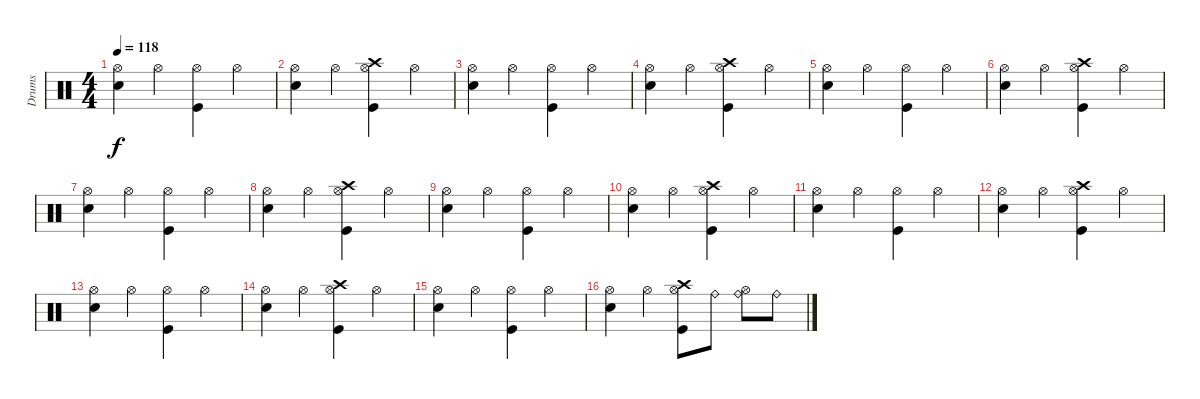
\track ("Drums" "Drums") {instrument percussion}
\staff {score}
\articulation defaults
\ts (4 4)
\tempo 118
\clef neutral
\ks c
("Snare (hit) 2" "Hi-Hat (open)").4{dy f} "Hi-Hat (open)".4 ("Kick (hit)" "Hi-Hat (open)").4 "Hi-Hat (open)".4 |
("Snare (hit) 2" "Hi-Hat (open)").4 "Hi-Hat (open)".4 ("Kick (hit)" "Hi-Hat (open)" "Crash high (hit)").4 "Hi-Hat (open)".4 |
("Snare (hit) 2" "Hi-Hat (open)").4 "Hi-Hat (open)".4 ("Kick (hit)" "Hi-Hat (open)").4 "Hi-Hat (open)".4 |
("Snare (hit) 2" "Hi-Hat (open)").4 "Hi-Hat (open)".4 ("Kick (hit)" "Hi-Hat (open)" "Crash high (hit)").4 "Hi-Hat (open)".4 |
("Snare (hit) 2" "Hi-Hat (open)").4 "Hi-Hat (open)".4 ("Kick (hit)" "Hi-Hat (open)").4 "Hi-Hat (open)".4 |
("Snare (hit) 2" "Hi-Hat (open)").4 "Hi-Hat (open)".4 ("Kick (hit)" "Hi-Hat (open)" "Crash high (hit)").4 "Hi-Hat (open)".4 |
("Snare (hit) 2" "Hi-Hat (open)").4 "Hi-Hat (open)".4 ("Kick (hit)" "Hi-Hat (open)").4 "Hi-Hat (open)".4 |
("Snare (hit) 2" "Hi-Hat (open)").4 "Hi-Hat (open)".4 ("Kick (hit)" "Hi-Hat (open)" "Crash high (hit)").4 "Hi-Hat (open)".4 |
("Snare (hit) 2" "Hi-Hat (open)").4 "Hi-Hat (open)".4 ("Kick (hit)" "Hi-Hat (open)").4 "Hi-Hat (open)".4 |
("Snare (hit) 2" "Hi-Hat (open)").4 "Hi-Hat (open)".4 ("Kick (hit)" "Hi-Hat (open)" "Crash high (hit)").4 "Hi-Hat (open)".4 |
("Snare (hit) 2" "Hi-Hat (open)").4 "Hi-Hat (open)".4 ("Kick (hit)" "Hi-Hat (open)").4 "Hi-Hat (open)".4 |
("Snare (hit) 2" "Hi-Hat (open)").4 "Hi-Hat (open)".4 ("Kick (hit)" "Hi-Hat (open)" "Crash high (hit)").4 "Hi-Hat (open)".4 |
("Snare (hit) 2" "Hi-Hat (open)").4 "Hi-Hat (open)".4 ("Kick (hit)" "Hi-Hat (open)").4 "Hi-Hat (open)".4 |
("Snare (hit) 2" "Hi-Hat (open)").4 "Hi-Hat (open)".4 ("Kick (hit)" "Hi-Hat (open)" "Crash high (hit)").4 "Hi-Hat (open)".4 |
("Snare (hit) 2" "Hi-Hat (open)").4 "Hi-Hat (open)".4 ("Kick (hit)" "Hi-Hat (open)").4 "Hi-Hat (open)".4 |
("Snare (hit) 2" "Hi-Hat (open)").4 "Hi-Hat (open)".4 ("Kick (hit)" "Hi-Hat (open)" "Crash high (hit)").8 "Ride (bell)".8 ("Hi-Hat (open)" "Ride (bell)").8 "Ride (bell)".8
